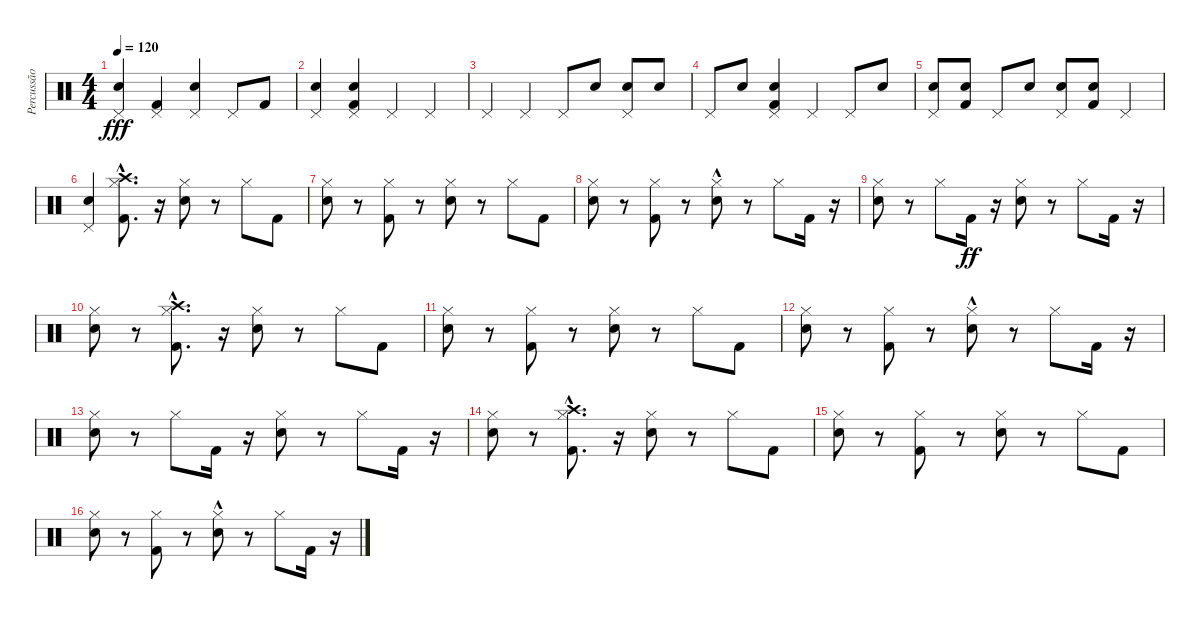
\track ("Percussão" "Percussão") {instrument percussion}
\staff {score}
\articulation defaults
\ts (4 4)
\tempo 120
\clef neutral
\ks c
("Snare (hit) 2" "Pedal Hi-Hat (hit)").4{dy fff} ("Kick (hit) 2" "Pedal Hi-Hat (hit)").4 ("Snare (hit) 2" "Pedal Hi-Hat (hit)").4 "Pedal Hi-Hat (hit)".8 "Kick (hit) 2".8 |
("Snare (hit) 2" "Pedal Hi-Hat (hit)").4 ("Snare (hit) 2" "Kick (hit) 2" "Pedal Hi-Hat (hit)").4 "Pedal Hi-Hat (hit)".4 "Pedal Hi-Hat (hit)".4 |
"Pedal Hi-Hat (hit)".4 "Pedal Hi-Hat (hit)".4 "Pedal Hi-Hat (hit)".8 "Snare (hit) 2".8 ("Snare (hit) 2" "Pedal Hi-Hat (hit)").8 "Snare (hit) 2".8 |
"Pedal Hi-Hat (hit)".8 "Snare (hit) 2".8 ("Snare (hit) 2" "Kick (hit) 2" "Pedal Hi-Hat (hit)").4 "Pedal Hi-Hat (hit)".4 "Pedal Hi-Hat (hit)".8 "Snare (hit) 2".8 |
("Snare (hit) 2" "Pedal Hi-Hat (hit)").8 ("Snare (hit) 2" "Kick (hit) 2").8 "Pedal Hi-Hat (hit)".8 "Snare (hit) 2".8 ("Snare (hit) 2" "Pedal Hi-Hat (hit)").8 ("Snare (hit) 2" "Kick (hit) 2").8 "Pedal Hi-Hat (hit)".4 |
("Snare (hit) 2" "Pedal Hi-Hat (hit)").4 ("Kick (hit) 2" "Hi-Hat (closed)" "Crash high (hit)"{hac}).8{d} r.16 ("Snare (hit) 2" "Hi-Hat (closed)").8 r.8 "Hi-Hat (closed)".8 "Kick (hit) 2".8 |
("Snare (hit) 2" "Hi-Hat (closed)").8 r.8 ("Kick (hit) 2" "Hi-Hat (closed)").8 r.8 ("Snare (hit) 2" "Hi-Hat (closed)").8 r.8 "Hi-Hat (closed)".8 "Kick (hit) 2".8 |
("Snare (hit) 2" "Hi-Hat (closed)").8 r.8 ("Kick (hit) 2" "Hi-Hat (closed)").8 r.8 ("Hi-Hat (closed)" "Snare (hit) 2"{hac}).8 r.8 "Hi-Hat (closed)".8 "Kick (hit) 2".16 r.16 |
("Hi-Hat (closed)" "Snare (hit) 2").8 r.8 "Hi-Hat (closed)".8 "Kick (hit) 2".16{dy ff} r.16 ("Hi-Hat (closed)" "Snare (hit) 2").8 r.8 "Hi-Hat (closed)".8 "Kick (hit) 2".16 r.16 |
("Hi-Hat (closed)" "Snare (hit) 2").8 r.8 ("Kick (hit) 2" "Hi-Hat (closed)" "Crash high (hit)"{hac}).8{d} r.16 ("Snare (hit) 2" "Hi-Hat (closed)").8 r.8 "Hi-Hat (closed)".8 "Kick (hit) 2".8 |
("Snare (hit) 2" "Hi-Hat (closed)").8 r.8 ("Kick (hit) 2" "Hi-Hat (closed)").8 r.8 ("Snare (hit) 2" "Hi-Hat (closed)").8 r.8 "Hi-Hat (closed)".8 "Kick (hit) 2".8 |
("Snare (hit) 2" "Hi-Hat (closed)").8 r.8 ("Kick (hit) 2" "Hi-Hat (closed)").8 r.8 ("Hi-Hat (closed)" "Snare (hit) 2"{hac}).8 r.8 "Hi-Hat (closed)".8 "Kick (hit) 2".16 r.16 |
("Hi-Hat (closed)" "Snare (hit) 2").8 r.8 "Hi-Hat (closed)".8 "Kick (hit) 2".16 r.16 ("Hi-Hat (closed)" "Snare (hit) 2").8 r.8 "Hi-Hat (closed)".8 "Kick (hit) 2".16 r.16 |
("Hi-Hat (closed)" "Snare (hit) 2").8 r.8 ("Kick (hit) 2" "Hi-Hat (closed)" "Crash high (hit)"{hac}).8{d} r.16 ("Snare (hit) 2" "Hi-Hat (closed)").8 r.8 "Hi-Hat (closed)".8 "Kick (hit) 2".8 |
("Snare (hit) 2" "Hi-Hat (closed)").8 r.8 ("Kick (hit) 2" "Hi-Hat (closed)").8 r.8 ("Snare (hit) 2" "Hi-Hat (closed)").8 r.8 "Hi-Hat (closed)".8 "Kick (hit) 2".8 |
("Snare (hit) 2" "Hi-Hat (closed)").8 r.8 ("Kick (hit) 2" "Hi-Hat (closed)").8 r.8 ("Hi-Hat (closed)" "Snare (hit) 2"{hac}).8 r.8 "Hi-Hat (closed)".8 "Kick (hit) 2".16 r.16
